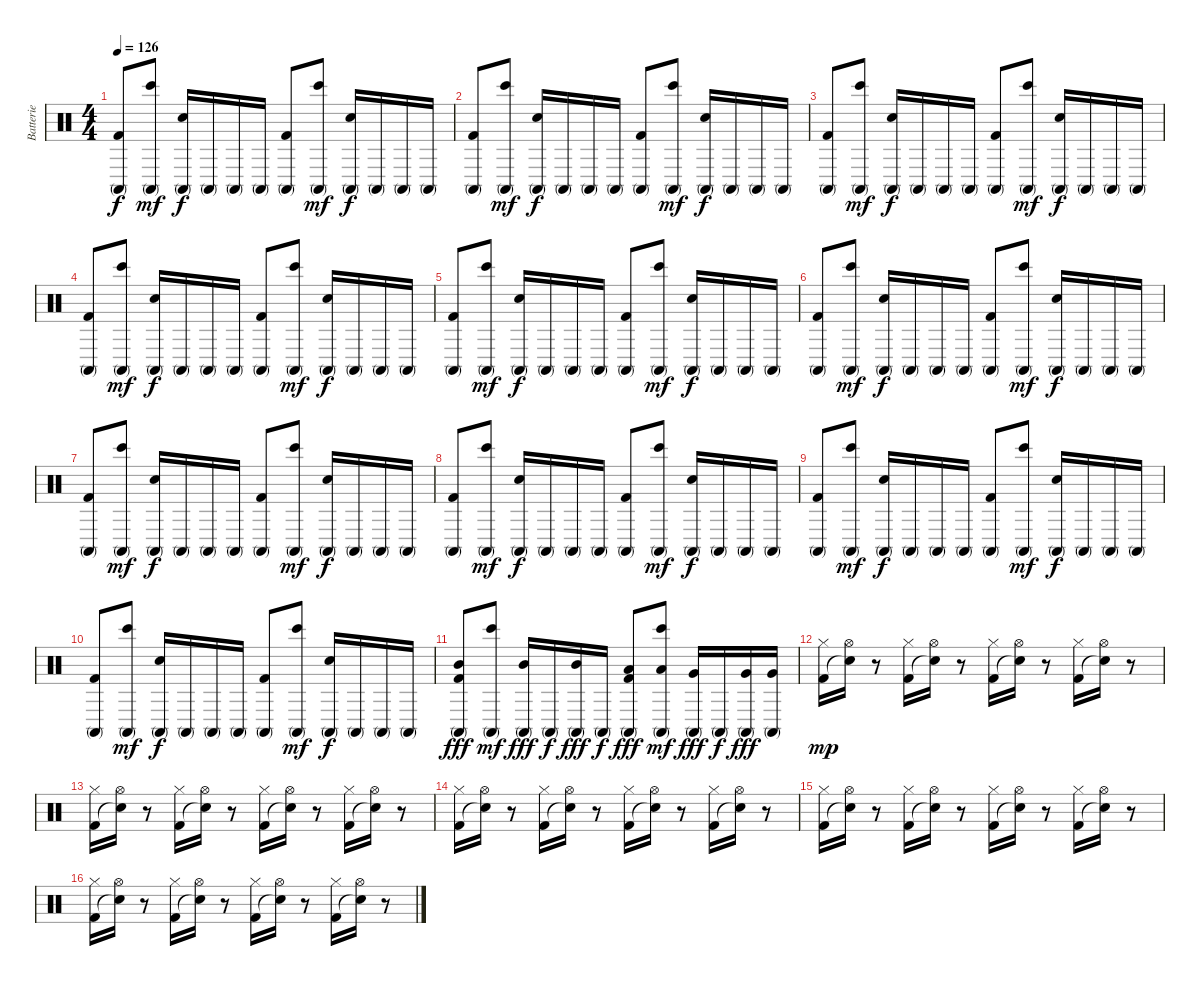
\track ("Batterie" "Batterie") {instrument percussion}
\staff {score}
\articulation defaults
\ts (4 4)
\tempo 126
\clef neutral
\ks c
("Conga high (mute)" "Kick (hit) 2").8{dy f} ("Conga high (mute)" "Bongo High (hit)").8{dy mf} ("Snare (hit) 2" "Conga high (mute)").16{dy f} "Conga high (mute)".16 "Conga high (mute)".16 "Conga high (mute)".16 ("Conga high (mute)" "Kick (hit) 2").8 ("Conga high (mute)" "Bongo High (hit)").8{dy mf} ("Snare (hit) 2" "Conga high (mute)").16{dy f} "Conga high (mute)".16 "Conga high (mute)".16 "Conga high (mute)".16 |
("Conga high (mute)" "Kick (hit) 2").8 ("Conga high (mute)" "Bongo High (hit)").8{dy mf} ("Snare (hit) 2" "Conga high (mute)").16{dy f} "Conga high (mute)".16 "Conga high (mute)".16 "Conga high (mute)".16 ("Conga high (mute)" "Kick (hit) 2").8 ("Conga high (mute)" "Bongo High (hit)").8{dy mf} ("Snare (hit) 2" "Conga high (mute)").16{dy f} "Conga high (mute)".16 "Conga high (mute)".16 "Conga high (mute)".16 |
("Conga high (mute)" "Kick (hit) 2").8 ("Conga high (mute)" "Bongo High (hit)").8{dy mf} ("Snare (hit) 2" "Conga high (mute)").16{dy f} "Conga high (mute)".16 "Conga high (mute)".16 "Conga high (mute)".16 ("Conga high (mute)" "Kick (hit) 2").8 ("Conga high (mute)" "Bongo High (hit)").8{dy mf} ("Snare (hit) 2" "Conga high (mute)").16{dy f} "Conga high (mute)".16 "Conga high (mute)".16 "Conga high (mute)".16 |
("Conga high (mute)" "Kick (hit) 2").8 ("Conga high (mute)" "Bongo High (hit)").8{dy mf} ("Snare (hit) 2" "Conga high (mute)").16{dy f} "Conga high (mute)".16 "Conga high (mute)".16 "Conga high (mute)".16 ("Conga high (mute)" "Kick (hit) 2").8 ("Conga high (mute)" "Bongo High (hit)").8{dy mf} ("Snare (hit) 2" "Conga high (mute)").16{dy f} "Conga high (mute)".16 "Conga high (mute)".16 "Conga high (mute)".16 |
("Conga high (mute)" "Kick (hit) 2").8 ("Conga high (mute)" "Bongo High (hit)").8{dy mf} ("Snare (hit) 2" "Conga high (mute)").16{dy f} "Conga high (mute)".16 "Conga high (mute)".16 "Conga high (mute)".16 ("Conga high (mute)" "Kick (hit) 2").8 ("Conga high (mute)" "Bongo High (hit)").8{dy mf} ("Snare (hit) 2" "Conga high (mute)").16{dy f} "Conga high (mute)".16 "Conga high (mute)".16 "Conga high (mute)".16 |
("Conga high (mute)" "Kick (hit) 2").8 ("Conga high (mute)" "Bongo High (hit)").8{dy mf} ("Snare (hit) 2" "Conga high (mute)").16{dy f} "Conga high (mute)".16 "Conga high (mute)".16 "Conga high (mute)".16 ("Conga high (mute)" "Kick (hit) 2").8 ("Conga high (mute)" "Bongo High (hit)").8{dy mf} ("Snare (hit) 2" "Conga high (mute)").16{dy f} "Conga high (mute)".16 "Conga high (mute)".16 "Conga high (mute)".16 |
("Conga high (mute)" "Kick (hit) 2").8 ("Conga high (mute)" "Bongo High (hit)").8{dy mf} ("Snare (hit) 2" "Conga high (mute)").16{dy f} "Conga high (mute)".16 "Conga high (mute)".16 "Conga high (mute)".16 ("Conga high (mute)" "Kick (hit) 2").8 ("Conga high (mute)" "Bongo High (hit)").8{dy mf} ("Snare (hit) 2" "Conga high (mute)").16{dy f} "Conga high (mute)".16 "Conga high (mute)".16 "Conga high (mute)".16 |
("Conga high (mute)" "Kick (hit) 2").8 ("Conga high (mute)" "Bongo High (hit)").8{dy mf} ("Snare (hit) 2" "Conga high (mute)").16{dy f} "Conga high (mute)".16 "Conga high (mute)".16 "Conga high (mute)".16 ("Conga high (mute)" "Kick (hit) 2").8 ("Conga high (mute)" "Bongo High (hit)").8{dy mf} ("Snare (hit) 2" "Conga high (mute)").16{dy f} "Conga high (mute)".16 "Conga high (mute)".16 "Conga high (mute)".16 |
("Conga high (mute)" "Kick (hit) 2").8 ("Conga high (mute)" "Bongo High (hit)").8{dy mf} ("Snare (hit) 2" "Conga high (mute)").16{dy f} "Conga high (mute)".16 "Conga high (mute)".16 "Conga high (mute)".16 ("Conga high (mute)" "Kick (hit) 2").8 ("Conga high (mute)" "Bongo High (hit)").8{dy mf} ("Snare (hit) 2" "Conga high (mute)").16{dy f} "Conga high (mute)".16 "Conga high (mute)".16 "Conga high (mute)".16 |
("Conga high (mute)" "Kick (hit) 2").8 ("Conga high (mute)" "Bongo High (hit)").8{dy mf} ("Snare (hit) 2" "Conga high (mute)").16{dy f} "Conga high (mute)".16 "Conga high (mute)".16 "Conga high (mute)".16 ("Conga high (mute)" "Kick (hit) 2").8 ("Conga high (mute)" "Bongo High (hit)").8{dy mf} ("Snare (hit) 2" "Conga high (mute)").16{dy f} "Conga high (mute)".16 "Conga high (mute)".16 "Conga high (mute)".16 |
("Conga high (mute)" "Mid Tom (hit)" "Kick (hit) 2").8{dy fff} ("Conga high (mute)" "Bongo High (hit)").8{dy mf} ("Conga high (mute)" "Mid Tom (hit)").16{dy fff} "Conga high (mute)".16{dy f} ("Conga high (mute)" "Mid Tom (hit)").16{dy fff} "Conga high (mute)".16{dy f} ("Conga high (mute)" "Low Tom (hit)" "Kick (hit) 2").8{dy fff} ("Conga high (mute)" "Low Tom (hit)" "Bongo High (hit)").8{dy mf} ("Conga high (mute)" "Very Low Tom (hit)").16{dy fff} "Conga high (mute)".16{dy f} ("Conga high (mute)" "Very Low Tom (hit)").16{dy fff} ("Conga high (mute)" "Very Low Tom (hit)").16 |
("Kick (hit) 2" "Hi-Hat (closed)").16{dy mp} ("Snare (hit)"{t} "Hi-Hat (open)").16 r.8 ("Kick (hit) 2" "Hi-Hat (closed)").16 ("Snare (hit)"{t} "Hi-Hat (open)").16 r.8 ("Kick (hit) 2" "Hi-Hat (closed)").16 ("Snare (hit)"{t} "Hi-Hat (open)").16 r.8 ("Kick (hit) 2" "Hi-Hat (closed)").16 ("Snare (hit)"{t} "Hi-Hat (open)").16 r.8 |
("Kick (hit) 2" "Hi-Hat (closed)").16 ("Snare (hit)"{t} "Hi-Hat (open)").16 r.8 ("Kick (hit) 2" "Hi-Hat (closed)").16 ("Snare (hit)"{t} "Hi-Hat (open)").16 r.8 ("Kick (hit) 2" "Hi-Hat (closed)").16 ("Snare (hit)"{t} "Hi-Hat (open)").16 r.8 ("Kick (hit) 2" "Hi-Hat (closed)").16 ("Snare (hit)"{t} "Hi-Hat (open)").16 r.8 |
("Kick (hit) 2" "Hi-Hat (closed)").16 ("Snare (hit)"{t} "Hi-Hat (open)").16 r.8 ("Kick (hit) 2" "Hi-Hat (closed)").16 ("Snare (hit)"{t} "Hi-Hat (open)").16 r.8 ("Kick (hit) 2" "Hi-Hat (closed)").16 ("Snare (hit)"{t} "Hi-Hat (open)").16 r.8 ("Kick (hit) 2" "Hi-Hat (closed)").16 ("Snare (hit)"{t} "Hi-Hat (open)").16 r.8 |
("Kick (hit) 2" "Hi-Hat (closed)").16 ("Snare (hit)"{t} "Hi-Hat (open)").16 r.8 ("Kick (hit) 2" "Hi-Hat (closed)").16 ("Snare (hit)"{t} "Hi-Hat (open)").16 r.8 ("Kick (hit) 2" "Hi-Hat (closed)").16 ("Snare (hit)"{t} "Hi-Hat (open)").16 r.8 ("Kick (hit) 2" "Hi-Hat (closed)").16 ("Snare (hit)"{t} "Hi-Hat (open)").16 r.8 |
("Kick (hit) 2" "Hi-Hat (closed)").16 ("Snare (hit)"{t} "Hi-Hat (open)").16 r.8 ("Kick (hit) 2" "Hi-Hat (closed)").16 ("Snare (hit)"{t} "Hi-Hat (open)").16 r.8 ("Kick (hit) 2" "Hi-Hat (closed)").16 ("Snare (hit)"{t} "Hi-Hat (open)").16 r.8 ("Kick (hit) 2" "Hi-Hat (closed)").16 ("Snare (hit)"{t} "Hi-Hat (open)").16 r.8
